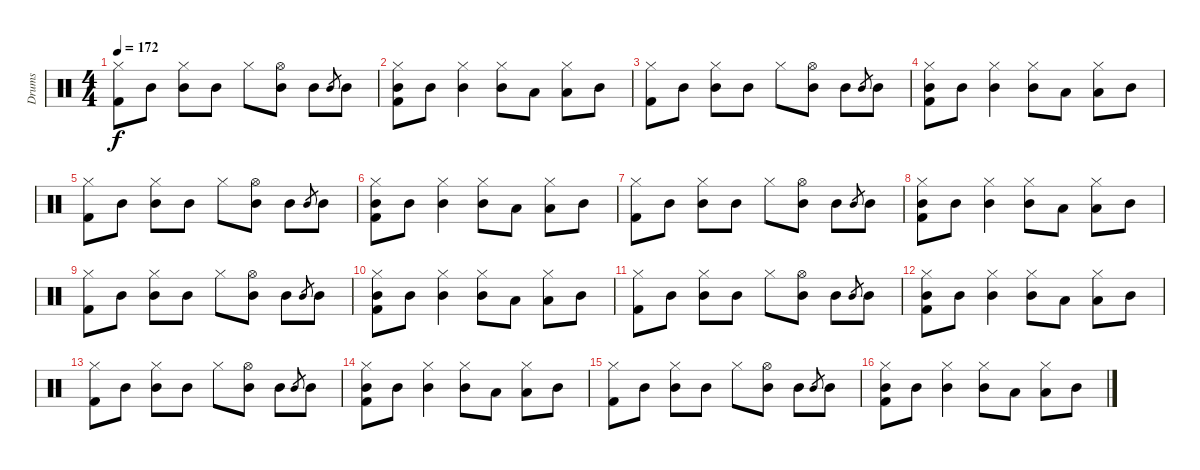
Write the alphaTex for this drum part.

\track ("Drums" "Drums") {instrument percussion}
\staff {score}
\articulation defaults
\ts (4 4)
\tempo 172
\clef neutral
\ks c
("Hi-Hat (closed)" "Kick (hit) 2").8{dy f} "Mid Tom (hit)".8 ("Hi-Hat (closed)" "Mid Tom (hit)").8 "Mid Tom (hit)".8 "Hi-Hat (closed)".8 ("Hi-Hat (open)" "Mid Tom (hit)").8 "Mid Tom (hit)".8 "Mid Tom (hit)".8{gr} "Mid Tom (hit)".8 |
("Hi-Hat (closed)" "Mid Tom (hit)" "Kick (hit) 2").8 "Mid Tom (hit)".8 ("Hi-Hat (closed)" "Mid Tom (hit)").4 ("Hi-Hat (closed)" "Mid Tom (hit)").8 "Low Tom (hit)".8 ("Hi-Hat (closed)" "Low Tom (hit)").8 "Mid Tom (hit)".8 |
("Hi-Hat (closed)" "Kick (hit) 2").8 "Mid Tom (hit)".8 ("Hi-Hat (closed)" "Mid Tom (hit)").8 "Mid Tom (hit)".8 "Hi-Hat (closed)".8 ("Hi-Hat (open)" "Mid Tom (hit)").8 "Mid Tom (hit)".8 "Mid Tom (hit)".8{gr} "Mid Tom (hit)".8 |
("Hi-Hat (closed)" "Mid Tom (hit)" "Kick (hit) 2").8 "Mid Tom (hit)".8 ("Hi-Hat (closed)" "Mid Tom (hit)").4 ("Hi-Hat (closed)" "Mid Tom (hit)").8 "Low Tom (hit)".8 ("Hi-Hat (closed)" "Low Tom (hit)").8 "Mid Tom (hit)".8 |
("Hi-Hat (closed)" "Kick (hit) 2").8 "Mid Tom (hit)".8 ("Hi-Hat (closed)" "Mid Tom (hit)").8 "Mid Tom (hit)".8 "Hi-Hat (closed)".8 ("Hi-Hat (open)" "Mid Tom (hit)").8 "Mid Tom (hit)".8 "Mid Tom (hit)".8{gr} "Mid Tom (hit)".8 |
("Hi-Hat (closed)" "Mid Tom (hit)" "Kick (hit) 2").8 "Mid Tom (hit)".8 ("Hi-Hat (closed)" "Mid Tom (hit)").4 ("Hi-Hat (closed)" "Mid Tom (hit)").8 "Low Tom (hit)".8 ("Hi-Hat (closed)" "Low Tom (hit)").8 "Mid Tom (hit)".8 |
("Hi-Hat (closed)" "Kick (hit) 2").8 "Mid Tom (hit)".8 ("Hi-Hat (closed)" "Mid Tom (hit)").8 "Mid Tom (hit)".8 "Hi-Hat (closed)".8 ("Hi-Hat (open)" "Mid Tom (hit)").8 "Mid Tom (hit)".8 "Mid Tom (hit)".8{gr} "Mid Tom (hit)".8 |
("Hi-Hat (closed)" "Mid Tom (hit)" "Kick (hit) 2").8 "Mid Tom (hit)".8 ("Hi-Hat (closed)" "Mid Tom (hit)").4 ("Hi-Hat (closed)" "Mid Tom (hit)").8 "Low Tom (hit)".8 ("Hi-Hat (closed)" "Low Tom (hit)").8 "Mid Tom (hit)".8 |
("Hi-Hat (closed)" "Kick (hit) 2").8 "Mid Tom (hit)".8 ("Hi-Hat (closed)" "Mid Tom (hit)").8 "Mid Tom (hit)".8 "Hi-Hat (closed)".8 ("Hi-Hat (open)" "Mid Tom (hit)").8 "Mid Tom (hit)".8 "Mid Tom (hit)".8{gr} "Mid Tom (hit)".8 |
("Hi-Hat (closed)" "Mid Tom (hit)" "Kick (hit) 2").8 "Mid Tom (hit)".8 ("Hi-Hat (closed)" "Mid Tom (hit)").4 ("Hi-Hat (closed)" "Mid Tom (hit)").8 "Low Tom (hit)".8 ("Hi-Hat (closed)" "Low Tom (hit)").8 "Mid Tom (hit)".8 |
("Hi-Hat (closed)" "Kick (hit) 2").8 "Mid Tom (hit)".8 ("Hi-Hat (closed)" "Mid Tom (hit)").8 "Mid Tom (hit)".8 "Hi-Hat (closed)".8 ("Hi-Hat (open)" "Mid Tom (hit)").8 "Mid Tom (hit)".8 "Mid Tom (hit)".8{gr} "Mid Tom (hit)".8 |
("Hi-Hat (closed)" "Mid Tom (hit)" "Kick (hit) 2").8 "Mid Tom (hit)".8 ("Hi-Hat (closed)" "Mid Tom (hit)").4 ("Hi-Hat (closed)" "Mid Tom (hit)").8 "Low Tom (hit)".8 ("Hi-Hat (closed)" "Low Tom (hit)").8 "Mid Tom (hit)".8 |
("Hi-Hat (closed)" "Kick (hit) 2").8 "Mid Tom (hit)".8 ("Hi-Hat (closed)" "Mid Tom (hit)").8 "Mid Tom (hit)".8 "Hi-Hat (closed)".8 ("Hi-Hat (open)" "Mid Tom (hit)").8 "Mid Tom (hit)".8 "Mid Tom (hit)".8{gr} "Mid Tom (hit)".8 |
("Hi-Hat (closed)" "Mid Tom (hit)" "Kick (hit) 2").8 "Mid Tom (hit)".8 ("Hi-Hat (closed)" "Mid Tom (hit)").4 ("Hi-Hat (closed)" "Mid Tom (hit)").8 "Low Tom (hit)".8 ("Hi-Hat (closed)" "Low Tom (hit)").8 "Mid Tom (hit)".8 |
("Hi-Hat (closed)" "Kick (hit) 2").8 "Mid Tom (hit)".8 ("Hi-Hat (closed)" "Mid Tom (hit)").8 "Mid Tom (hit)".8 "Hi-Hat (closed)".8 ("Hi-Hat (open)" "Mid Tom (hit)").8 "Mid Tom (hit)".8 "Mid Tom (hit)".8{gr} "Mid Tom (hit)".8 |
("Hi-Hat (closed)" "Mid Tom (hit)" "Kick (hit) 2").8 "Mid Tom (hit)".8 ("Hi-Hat (closed)" "Mid Tom (hit)").4 ("Hi-Hat (closed)" "Mid Tom (hit)").8 "Low Tom (hit)".8 ("Hi-Hat (closed)" "Low Tom (hit)").8 "Mid Tom (hit)".8
